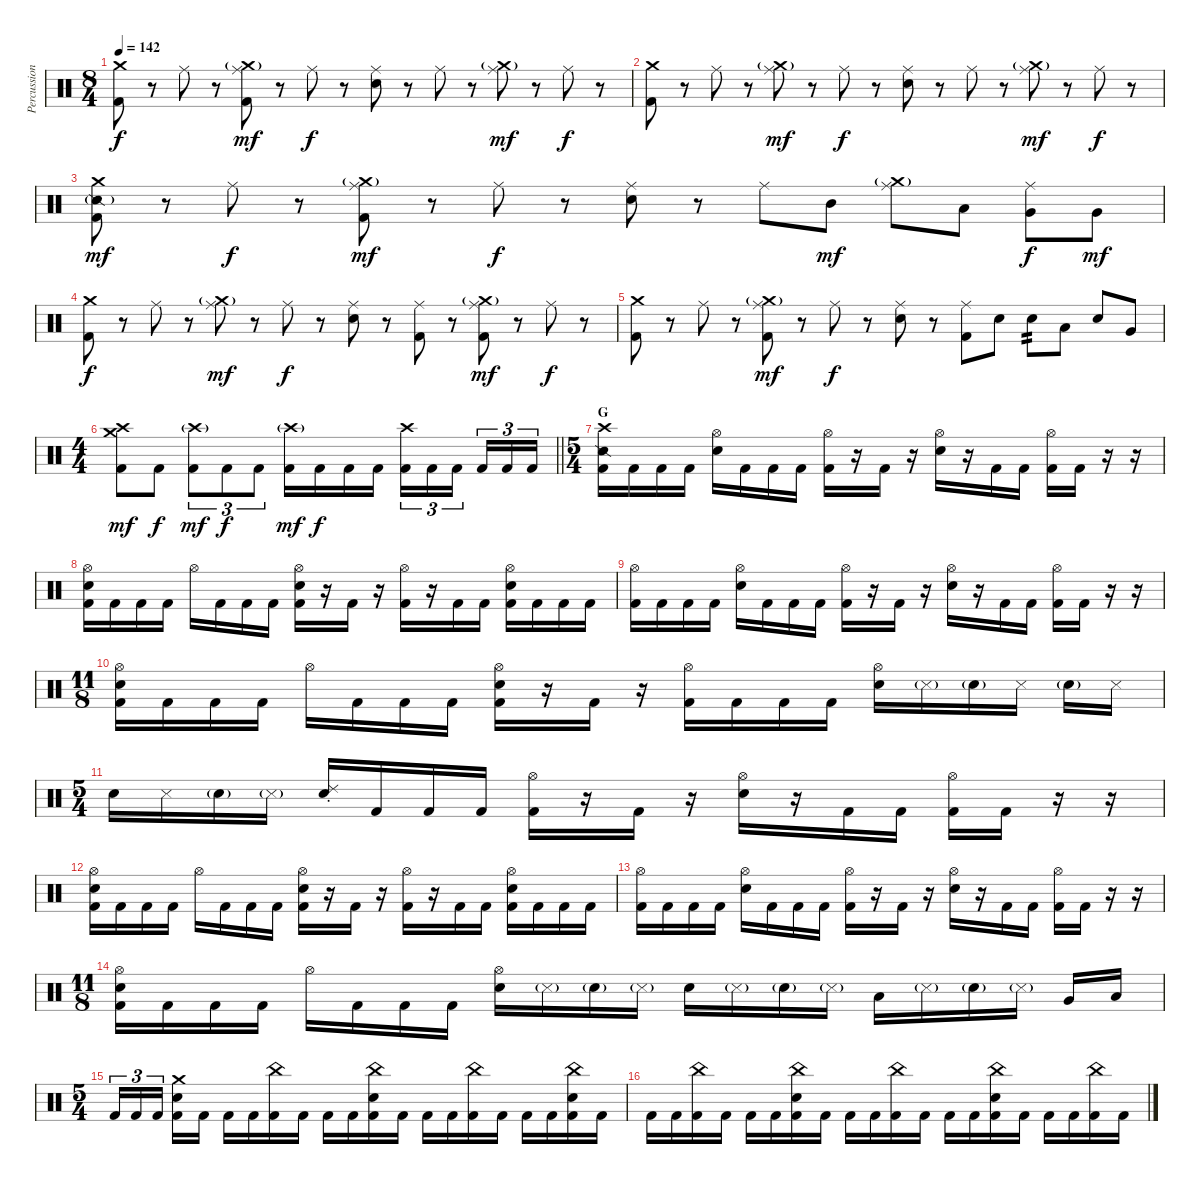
\track ("Percussion" "Percussion") {instrument percussion}
\staff {score}
\articulation defaults
\ts (8 4)
\tempo 142
\clef neutral
\ks c
("Crash medium (hit)" "Kick (hit) 2").8{dy f} r.8 "Ride (middle)".8 r.8 ("Ride (middle)" "Crash medium (hit)"{g} "Kick (hit) 2").8{dy mf} r.8 "Ride (middle)".8{dy f} r.8 ("Ride (middle)" "Snare (hit) 2").8 r.8 "Ride (middle)".8 r.8 ("Ride (middle)" "Crash medium (hit)"{g}).8{dy mf} r.8 "Ride (middle)".8{dy f} r.8 |
("Crash medium (hit)" "Kick (hit) 2").8 r.8 "Ride (middle)".8 r.8 ("Ride (middle)" "Crash medium (hit)"{g}).8{dy mf} r.8 "Ride (middle)".8{dy f} r.8 ("Ride (middle)" "Snare (hit) 2").8 r.8 "Ride (middle)".8 r.8 ("Ride (middle)" "Crash medium (hit)"{g}).8{dy mf} r.8 "Ride (middle)".8{dy f} r.8 |
("Crash medium (hit)" "Snare (side stick) 2"{g} "Kick (hit) 2").8{dy mf} r.8 "Ride (middle)".8{dy f} r.8 ("Ride (middle)" "Crash medium (hit)"{g} "Kick (hit) 2").8{dy mf} r.8 "Ride (middle)".8{dy f} r.8 ("Ride (middle)" "Snare (hit) 2").8 r.8 "Ride (middle)".8 "Mid Tom (hit)".8{dy mf} ("Ride (middle)" "Crash medium (hit)"{g}).8 "Low Tom (hit)".8 ("Ride (middle)" "Very Low Tom (hit)").8{dy f} "Very Low Tom (hit)".8{dy mf} |
("Crash medium (hit)" "Kick (hit) 2").8{dy f} r.8 "Ride (middle)".8 r.8 ("Ride (middle)" "Crash medium (hit)"{g}).8{dy mf} r.8 "Ride (middle)".8{dy f} r.8 ("Ride (middle)" "Snare (hit) 2").8 r.8 ("Ride (middle)" "Kick (hit) 2").8 r.8 ("Ride (middle)" "Crash medium (hit)"{g} "Kick (hit) 2").8{dy mf} r.8 "Ride (middle)".8{dy f} r.8 |
("Crash medium (hit)" "Kick (hit) 2").8 r.8 "Ride (middle)".8 r.8 ("Ride (middle)" "Crash medium (hit)"{g} "Kick (hit) 2").8{dy mf} r.8 "Ride (middle)".8{dy f} r.8 ("Ride (middle)" "Snare (hit) 2").8 r.8 ("Ride (middle)" "Kick (hit) 2").8 "Snare (hit) 2".8 "Snare (hit) 2".8{tp 2} "Low Tom (hit)".8 "Snare (hit) 2".8 "Very Low Tom (hit)".8 |
\ts (4 4)
\barLineRight lightlight
("Crash high (hit)" "Crash medium (hit)" "Kick (hit) 2").8{dy mf} "Kick (hit) 2".8{dy f} ("Crash high (hit)"{g} "Kick (hit) 2").8{tu (3 2) dy mf} "Kick (hit) 2".8{tu (3 2) dy f} "Kick (hit) 2".8{tu (3 2)} ("Crash high (hit)"{g} "Kick (hit) 2").16{dy mf} "Kick (hit) 2".16{dy f} "Kick (hit) 2".16 "Kick (hit) 2".16 ("Crash high (hit)" "Kick (hit) 2").16{tu (3 2)} "Kick (hit) 2".16{tu (3 2)} "Kick (hit) 2".16{tu (3 2) beam splitsecondary} "Kick (hit) 2".16{tu (3 2)} "Kick (hit) 2".16{tu (3 2)} "Kick (hit) 2".16{tu (3 2)} |
\ts (5 4)
\section ("" "G")
("Crash high (hit)" "Snare (side stick) 2" "Kick (hit) 2").16 "Kick (hit) 2".16 "Kick (hit) 2".16 "Kick (hit) 2".16 ("Hi-Hat (open)" "Snare (hit) 2").16 "Kick (hit) 2".16 "Kick (hit) 2".16 "Kick (hit) 2".16 ("Hi-Hat (open)" "Kick (hit) 2").16 r.16 "Kick (hit) 2".16 r.16 ("Hi-Hat (open)" "Snare (hit) 2").16 r.16 "Kick (hit) 2".16 "Kick (hit) 2".16 ("Hi-Hat (open)" "Kick (hit) 2").16 "Kick (hit) 2".16 r.16 r.16 |
("Hi-Hat (open)" "Snare (hit) 2" "Kick (hit) 2").16 "Kick (hit) 2".16 "Kick (hit) 2".16 "Kick (hit) 2".16 "Hi-Hat (open)".16 "Kick (hit) 2".16 "Kick (hit) 2".16 "Kick (hit) 2".16 ("Hi-Hat (open)" "Snare (hit) 2" "Kick (hit) 2").16 r.16 "Kick (hit) 2".16 r.16 ("Hi-Hat (open)" "Kick (hit) 2").16 r.16 "Kick (hit) 2".16 "Kick (hit) 2".16 ("Hi-Hat (open)" "Snare (hit) 2" "Kick (hit) 2").16 "Kick (hit) 2".16 "Kick (hit) 2".16 "Kick (hit) 2".16 |
("Hi-Hat (open)" "Kick (hit) 2").16 "Kick (hit) 2".16 "Kick (hit) 2".16 "Kick (hit) 2".16 ("Hi-Hat (open)" "Snare (hit) 2").16 "Kick (hit) 2".16 "Kick (hit) 2".16 "Kick (hit) 2".16 ("Hi-Hat (open)" "Kick (hit) 2").16 r.16 "Kick (hit) 2".16 r.16 ("Hi-Hat (open)" "Snare (hit) 2").16 r.16 "Kick (hit) 2".16 "Kick (hit) 2".16 ("Hi-Hat (open)" "Kick (hit) 2").16 "Kick (hit) 2".16 r.16 r.16 |
\ts (11 8)
("Hi-Hat (open)" "Snare (hit) 2" "Kick (hit) 2").16 "Kick (hit) 2".16 "Kick (hit) 2".16 "Kick (hit) 2".16 "Hi-Hat (open)".16 "Kick (hit) 2".16 "Kick (hit) 2".16 "Kick (hit) 2".16 ("Hi-Hat (open)" "Snare (hit) 2" "Kick (hit) 2").16 r.16 "Kick (hit) 2".16 r.16 ("Hi-Hat (open)" "Kick (hit) 2").16 "Kick (hit) 2".16 "Kick (hit) 2".16 "Kick (hit) 2".16 ("Hi-Hat (open)" "Snare (hit) 2").16 "Metronome (hit)"{g}.16 "Snare (hit) 2"{g}.16 "Metronome (hit)".16 "Snare (hit) 2"{g}.16 "Metronome (hit)".16 |
\ts (5 4)
"Snare (hit) 2".16 "Metronome (hit)".16 "Snare (hit) 2"{g}.16 "Metronome (hit)"{g}.16 ("Ride (choke) 2" "Snare (hit) 2").16 "Kick (hit) 2".16 "Kick (hit) 2".16 "Kick (hit) 2".16 ("Hi-Hat (open)" "Kick (hit) 2").16 r.16 "Kick (hit) 2".16 r.16 ("Hi-Hat (open)" "Snare (hit) 2").16 r.16 "Kick (hit) 2".16 "Kick (hit) 2".16 ("Hi-Hat (open)" "Kick (hit) 2").16 "Kick (hit) 2".16 r.16 r.16 |
("Hi-Hat (open)" "Snare (hit) 2" "Kick (hit) 2").16 "Kick (hit) 2".16 "Kick (hit) 2".16 "Kick (hit) 2".16 "Hi-Hat (open)".16 "Kick (hit) 2".16 "Kick (hit) 2".16 "Kick (hit) 2".16 ("Hi-Hat (open)" "Snare (hit) 2" "Kick (hit) 2").16 r.16 "Kick (hit) 2".16 r.16 ("Hi-Hat (open)" "Kick (hit) 2").16 r.16 "Kick (hit) 2".16 "Kick (hit) 2".16 ("Hi-Hat (open)" "Snare (hit) 2" "Kick (hit) 2").16 "Kick (hit) 2".16 "Kick (hit) 2".16 "Kick (hit) 2".16 |
("Hi-Hat (open)" "Kick (hit) 2").16 "Kick (hit) 2".16 "Kick (hit) 2".16 "Kick (hit) 2".16 ("Hi-Hat (open)" "Snare (hit) 2").16 "Kick (hit) 2".16 "Kick (hit) 2".16 "Kick (hit) 2".16 ("Hi-Hat (open)" "Kick (hit) 2").16 r.16 "Kick (hit) 2".16 r.16 ("Hi-Hat (open)" "Snare (hit) 2").16 r.16 "Kick (hit) 2".16 "Kick (hit) 2".16 ("Hi-Hat (open)" "Kick (hit) 2").16 "Kick (hit) 2".16 r.16 r.16 |
\ts (11 8)
("Hi-Hat (open)" "Snare (hit) 2" "Kick (hit) 2").16 "Kick (hit) 2".16 "Kick (hit) 2".16 "Kick (hit) 2".16 "Hi-Hat (open)".16 "Kick (hit) 2".16 "Kick (hit) 2".16 "Kick (hit) 2".16 ("Hi-Hat (open)" "Snare (hit) 2").16 "Metronome (hit)"{g}.16 "Snare (hit) 2"{g}.16 "Metronome (hit)"{g}.16 "Snare (hit) 2".16 "Metronome (hit)"{g}.16 "Snare (hit) 2"{g}.16 "Metronome (hit)"{g}.16 "Low Tom (hit)".16 "Metronome (hit)"{g}.16 "Snare (hit) 2"{g}.16 "Metronome (hit)"{g}.16 "Very Low Tom (hit)".16 "Low Floor Tom (hit)".16 |
\ts (5 4)
"Kick (hit) 2".16{tu (3 2)} "Kick (hit) 2".16{tu (3 2)} "Kick (hit) 2".16{tu (3 2) beam splitsecondary} ("Crash medium (hit)" "Snare (hit) 2" "Kick (hit) 2").16 "Kick (hit) 2".16 "Kick (hit) 2".16 "Kick (hit) 2".16 ("China (hit)" "Kick (hit) 2").16 "Kick (hit) 2".16 "Kick (hit) 2".16 "Kick (hit) 2".16 ("China (hit)" "Snare (hit) 2" "Kick (hit) 2").16 "Kick (hit) 2".16 "Kick (hit) 2".16 "Kick (hit) 2".16 ("China (hit)" "Kick (hit) 2").16 "Kick (hit) 2".16 "Kick (hit) 2".16 "Kick (hit) 2".16 ("China (hit)" "Snare (hit) 2" "Kick (hit) 2").16 "Kick (hit) 2".16 |
"Kick (hit) 2".16 "Kick (hit) 2".16 ("China (hit)" "Kick (hit) 2").16 "Kick (hit) 2".16 "Kick (hit) 2".16 "Kick (hit) 2".16 ("China (hit)" "Snare (hit) 2" "Kick (hit) 2").16 "Kick (hit) 2".16 "Kick (hit) 2".16 "Kick (hit) 2".16 ("China (hit)" "Kick (hit) 2").16 "Kick (hit) 2".16 "Kick (hit) 2".16 "Kick (hit) 2".16 ("China (hit)" "Snare (hit) 2" "Kick (hit) 2").16 "Kick (hit) 2".16 "Kick (hit) 2".16 "Kick (hit) 2".16 ("China (hit)" "Kick (hit) 2").16 "Kick (hit) 2".16
